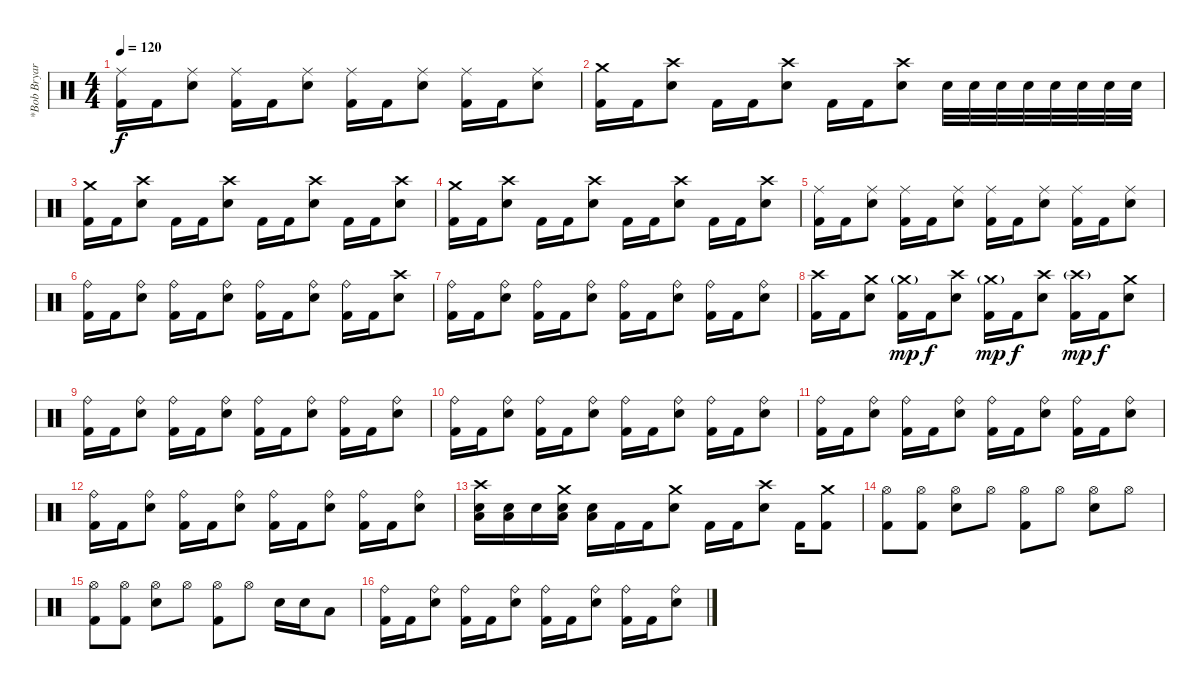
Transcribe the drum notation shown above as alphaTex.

\track ("*Bob Bryar" "*Bob Bryar") {instrument percussion}
\staff {score}
\articulation defaults
\ts (4 4)
\tempo 120
\clef neutral
\ks c
("Ride (middle)" "Kick (hit) 2").16{dy f} "Kick (hit) 2".16 ("Ride (middle)" "Electric Snare (hit)").8 ("Ride (middle)" "Kick (hit) 2").16 "Kick (hit) 2".16 ("Ride (middle)" "Electric Snare (hit)").8 ("Ride (middle)" "Kick (hit) 2").16 "Kick (hit) 2".16 ("Ride (middle)" "Electric Snare (hit)").8 ("Ride (middle)" "Kick (hit) 2").16 "Kick (hit) 2".16 ("Ride (middle)" "Electric Snare (hit)").8 |
("Crash medium (hit)" "Kick (hit) 2").16 "Kick (hit) 2".16 ("Crash high (hit)" "Electric Snare (hit)").8 "Kick (hit) 2".16 "Kick (hit) 2".16 ("Crash high (hit)" "Electric Snare (hit)").8 "Kick (hit) 2".16 "Kick (hit) 2".16 ("Crash high (hit)" "Electric Snare (hit)").8 "Electric Snare (hit)".32 "Electric Snare (hit)".32 "Electric Snare (hit)".32 "Electric Snare (hit)".32 "Electric Snare (hit)".32 "Electric Snare (hit)".32 "Electric Snare (hit)".32 "Electric Snare (hit)".32 |
("Crash medium (hit)" "Kick (hit) 2").16 "Kick (hit) 2".16 ("Crash high (hit)" "Electric Snare (hit)").8 "Kick (hit) 2".16 "Kick (hit) 2".16 ("Crash high (hit)" "Electric Snare (hit)").8 "Kick (hit) 2".16 "Kick (hit) 2".16 ("Crash high (hit)" "Electric Snare (hit)").8 "Kick (hit) 2".16 "Kick (hit) 2".16 ("Crash high (hit)" "Electric Snare (hit)").8 |
("Crash medium (hit)" "Kick (hit) 2").16 "Kick (hit) 2".16 ("Crash high (hit)" "Electric Snare (hit)").8 "Kick (hit) 2".16 "Kick (hit) 2".16 ("Crash high (hit)" "Electric Snare (hit)").8 "Kick (hit) 2".16 "Kick (hit) 2".16 ("Crash high (hit)" "Electric Snare (hit)").8 "Kick (hit) 2".16 "Kick (hit) 2".16 ("Crash high (hit)" "Electric Snare (hit)").8 |
("Ride (middle)" "Kick (hit) 2").16 "Kick (hit) 2".16 ("Ride (middle)" "Electric Snare (hit)").8 ("Ride (middle)" "Kick (hit) 2").16 "Kick (hit) 2".16 ("Ride (middle)" "Electric Snare (hit)").8 ("Ride (middle)" "Kick (hit) 2").16 "Kick (hit) 2".16 ("Ride (middle)" "Electric Snare (hit)").8 ("Ride (middle)" "Kick (hit) 2").16 "Kick (hit) 2".16 ("Ride (middle)" "Electric Snare (hit)").8 |
("Ride (bell)" "Kick (hit) 2").16 "Kick (hit) 2".16 ("Ride (bell)" "Electric Snare (hit)").8 ("Ride (bell)" "Kick (hit) 2").16 "Kick (hit) 2".16 ("Ride (bell)" "Electric Snare (hit)").8 ("Ride (bell)" "Kick (hit) 2").16 "Kick (hit) 2".16 ("Ride (bell)" "Electric Snare (hit)").8 ("Ride (bell)" "Kick (hit) 2").16 "Kick (hit) 2".16 ("Crash high (hit)" "Electric Snare (hit)").8 |
("Ride (bell)" "Kick (hit) 2").16 "Kick (hit) 2".16 ("Ride (bell)" "Electric Snare (hit)").8 ("Ride (bell)" "Kick (hit) 2").16 "Kick (hit) 2".16 ("Ride (bell)" "Electric Snare (hit)").8 ("Ride (bell)" "Kick (hit) 2").16 "Kick (hit) 2".16 ("Ride (bell)" "Electric Snare (hit)").8 ("Ride (bell)" "Kick (hit) 2").16 "Kick (hit) 2".16 ("Ride (bell)" "Electric Snare (hit)").8 |
("Crash high (hit)" "Kick (hit) 2").16 "Kick (hit) 2".16 ("Crash medium (hit)" "Electric Snare (hit)").8 ("Crash medium (hit)"{g} "Kick (hit) 2").16{dy mp} "Kick (hit) 2".16{dy f} ("Crash high (hit)" "Electric Snare (hit)").8 ("Crash medium (hit)"{g} "Kick (hit) 2").16{dy mp} "Kick (hit) 2".16{dy f} ("Crash high (hit)" "Electric Snare (hit)").8 ("Crash high (hit)"{g} "Kick (hit) 2").16{dy mp} "Kick (hit) 2".16{dy f} ("Crash medium (hit)" "Electric Snare (hit)").8 |
("Ride (bell)" "Kick (hit) 2").16 "Kick (hit) 2".16 ("Ride (bell)" "Electric Snare (hit)").8 ("Ride (bell)" "Kick (hit) 2").16 "Kick (hit) 2".16 ("Ride (bell)" "Electric Snare (hit)").8 ("Ride (bell)" "Kick (hit) 2").16 "Kick (hit) 2".16 ("Ride (bell)" "Electric Snare (hit)").8 ("Ride (bell)" "Kick (hit) 2").16 "Kick (hit) 2".16 ("Ride (bell)" "Electric Snare (hit)").8 |
("Ride (bell)" "Kick (hit) 2").16 "Kick (hit) 2".16 ("Ride (bell)" "Electric Snare (hit)").8 ("Ride (bell)" "Kick (hit) 2").16 "Kick (hit) 2".16 ("Ride (bell)" "Electric Snare (hit)").8 ("Ride (bell)" "Kick (hit) 2").16 "Kick (hit) 2".16 ("Ride (bell)" "Electric Snare (hit)").8 ("Ride (bell)" "Kick (hit) 2").16 "Kick (hit) 2".16 ("Ride (bell)" "Electric Snare (hit)").8 |
("Ride (bell)" "Kick (hit) 2").16 "Kick (hit) 2".16 ("Ride (bell)" "Electric Snare (hit)").8 ("Ride (bell)" "Kick (hit) 2").16 "Kick (hit) 2".16 ("Ride (bell)" "Electric Snare (hit)").8 ("Ride (bell)" "Kick (hit) 2").16 "Kick (hit) 2".16 ("Ride (bell)" "Electric Snare (hit)").8 ("Ride (bell)" "Kick (hit) 2").16 "Kick (hit) 2".16 ("Ride (bell)" "Electric Snare (hit)").8 |
("Ride (bell)" "Kick (hit) 2").16 "Kick (hit) 2".16 ("Ride (bell)" "Electric Snare (hit)").8 ("Ride (bell)" "Kick (hit) 2").16 "Kick (hit) 2".16 ("Ride (bell)" "Electric Snare (hit)").8 ("Ride (bell)" "Kick (hit) 2").16 "Kick (hit) 2".16 ("Ride (bell)" "Electric Snare (hit)").8 ("Ride (bell)" "Kick (hit) 2").16 "Kick (hit) 2".16 ("Ride (bell)" "Electric Snare (hit)").8 |
("Crash high (hit)" "Electric Snare (hit)" "Low Tom (hit)").16 ("Electric Snare (hit)" "Low Tom (hit)").16 "Electric Snare (hit)"{x}.16 ("Crash medium (hit)" "Electric Snare (hit)" "Low Tom (hit)").16 ("Electric Snare (hit)" "Low Tom (hit)").16 "Kick (hit) 2".16 "Kick (hit) 2".16 ("Crash medium (hit)" "Electric Snare (hit)").8 "Kick (hit) 2".16 "Kick (hit) 2".16 ("Crash high (hit)" "Electric Snare (hit)").8 "Kick (hit) 2".16 ("Crash medium (hit)" "Kick (hit) 2").8 |
("Hi-Hat (open)" "Kick (hit) 2").8 ("Hi-Hat (open)" "Kick (hit) 2").8 ("Hi-Hat (open)" "Electric Snare (hit)").8 "Hi-Hat (open)".8 ("Hi-Hat (open)" "Kick (hit) 2").8 "Hi-Hat (open)".8 ("Hi-Hat (open)" "Electric Snare (hit)").8 "Hi-Hat (open)".8 |
("Hi-Hat (open)" "Kick (hit) 2").8 ("Hi-Hat (open)" "Kick (hit) 2").8 ("Hi-Hat (open)" "Electric Snare (hit)").8 "Hi-Hat (open)".8 ("Hi-Hat (open)" "Kick (hit) 2").8 "Hi-Hat (open)".8 "Electric Snare (hit)".16 "Electric Snare (hit)".16 "Low Tom (hit)".8 |
("Ride (bell)" "Kick (hit) 2").16 "Kick (hit) 2".16 ("Ride (bell)" "Electric Snare (hit)").8 ("Ride (bell)" "Kick (hit) 2").16 "Kick (hit) 2".16 ("Ride (bell)" "Electric Snare (hit)").8 ("Ride (bell)" "Kick (hit) 2").16 "Kick (hit) 2".16 ("Ride (bell)" "Electric Snare (hit)").8 ("Ride (bell)" "Kick (hit) 2").16 "Kick (hit) 2".16 ("Ride (bell)" "Electric Snare (hit)").8
